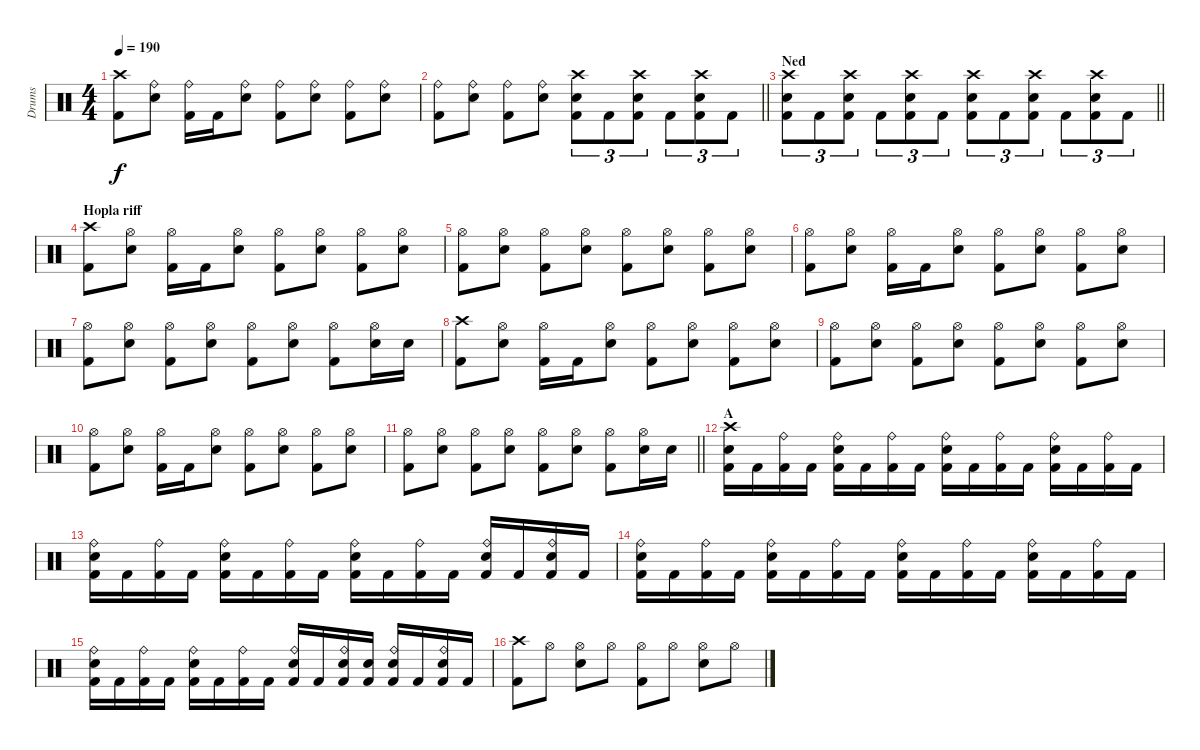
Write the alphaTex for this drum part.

\track ("Drums" "Drums") {instrument percussion}
\staff {score}
\articulation defaults
\ts (4 4)
\tempo 190
\clef neutral
\ks c
("Crash high (hit)" "Kick (hit) 2").8{dy f} ("Ride (bell)" "Snare (hit) 2").8 ("Ride (bell)" "Kick (hit) 2").16 "Kick (hit) 2".16 ("Ride (bell)" "Snare (hit) 2").8 ("Ride (bell)" "Kick (hit) 2").8 ("Ride (bell)" "Snare (hit) 2").8 ("Ride (bell)" "Kick (hit) 2").8 ("Ride (bell)" "Snare (hit) 2").8 |
\barLineRight lightlight
("Ride (bell)" "Kick (hit) 2").8 ("Ride (bell)" "Snare (hit) 2").8 ("Ride (bell)" "Kick (hit) 2").8 ("Ride (bell)" "Snare (hit) 2").8 ("Crash high (hit)" "Snare (hit) 2" "Kick (hit) 2").8{tu (3 2)} "Kick (hit) 2".8{tu (3 2)} ("Crash high (hit)" "Snare (hit) 2" "Kick (hit) 2").8{tu (3 2)} "Kick (hit) 2".8{tu (3 2)} ("Crash high (hit)" "Snare (hit) 2" "Kick (hit) 2").8{tu (3 2)} "Kick (hit) 2".8{tu (3 2)} |
\section ("" "Ned")
\barLineRight lightlight
("Crash high (hit)" "Snare (hit) 2" "Kick (hit) 2").8{tu (3 2)} "Kick (hit) 2".8{tu (3 2)} ("Crash high (hit)" "Snare (hit) 2" "Kick (hit) 2").8{tu (3 2)} "Kick (hit) 2".8{tu (3 2)} ("Crash high (hit)" "Snare (hit) 2" "Kick (hit) 2").8{tu (3 2)} "Kick (hit) 2".8{tu (3 2)} ("Crash high (hit)" "Snare (hit) 2" "Kick (hit) 2").8{tu (3 2)} "Kick (hit) 2".8{tu (3 2)} ("Crash high (hit)" "Snare (hit) 2" "Kick (hit) 2").8{tu (3 2)} "Kick (hit) 2".8{tu (3 2)} ("Crash high (hit)" "Snare (hit) 2" "Kick (hit) 2").8{tu (3 2)} "Kick (hit) 2".8{tu (3 2)} |
\section ("" "Hopla riff")
("Crash high (hit)" "Kick (hit) 2").8 ("Hi-Hat (open)" "Snare (hit) 2").8 ("Hi-Hat (open)" "Kick (hit) 2").16 "Kick (hit) 2".16 ("Hi-Hat (open)" "Snare (hit) 2").8 ("Hi-Hat (open)" "Kick (hit) 2").8 ("Hi-Hat (open)" "Snare (hit) 2").8 ("Hi-Hat (open)" "Kick (hit) 2").8 ("Hi-Hat (open)" "Snare (hit) 2").8 |
("Hi-Hat (open)" "Kick (hit) 2").8 ("Hi-Hat (open)" "Snare (hit) 2").8 ("Hi-Hat (open)" "Kick (hit) 2").8 ("Hi-Hat (open)" "Snare (hit) 2").8 ("Hi-Hat (open)" "Kick (hit) 2").8 ("Hi-Hat (open)" "Snare (hit) 2").8 ("Hi-Hat (open)" "Kick (hit) 2").8 ("Hi-Hat (open)" "Snare (hit) 2").8 |
("Hi-Hat (open)" "Kick (hit) 2").8 ("Hi-Hat (open)" "Snare (hit) 2").8 ("Hi-Hat (open)" "Kick (hit) 2").16 "Kick (hit) 2".16 ("Hi-Hat (open)" "Snare (hit) 2").8 ("Hi-Hat (open)" "Kick (hit) 2").8 ("Hi-Hat (open)" "Snare (hit) 2").8 ("Hi-Hat (open)" "Kick (hit) 2").8 ("Hi-Hat (open)" "Snare (hit) 2").8 |
("Hi-Hat (open)" "Kick (hit) 2").8 ("Hi-Hat (open)" "Snare (hit) 2").8 ("Hi-Hat (open)" "Kick (hit) 2").8 ("Hi-Hat (open)" "Snare (hit) 2").8 ("Hi-Hat (open)" "Kick (hit) 2").8 ("Hi-Hat (open)" "Snare (hit) 2").8 ("Hi-Hat (open)" "Kick (hit) 2").8 ("Hi-Hat (open)" "Snare (hit) 2").16 "Snare (hit) 2".16 |
("Crash high (hit)" "Kick (hit) 2").8 ("Hi-Hat (open)" "Snare (hit) 2").8 ("Hi-Hat (open)" "Kick (hit) 2").16 "Kick (hit) 2".16 ("Hi-Hat (open)" "Snare (hit) 2").8 ("Hi-Hat (open)" "Kick (hit) 2").8 ("Hi-Hat (open)" "Snare (hit) 2").8 ("Hi-Hat (open)" "Kick (hit) 2").8 ("Hi-Hat (open)" "Snare (hit) 2").8 |
("Hi-Hat (open)" "Kick (hit) 2").8 ("Hi-Hat (open)" "Snare (hit) 2").8 ("Hi-Hat (open)" "Kick (hit) 2").8 ("Hi-Hat (open)" "Snare (hit) 2").8 ("Hi-Hat (open)" "Kick (hit) 2").8 ("Hi-Hat (open)" "Snare (hit) 2").8 ("Hi-Hat (open)" "Kick (hit) 2").8 ("Hi-Hat (open)" "Snare (hit) 2").8 |
("Hi-Hat (open)" "Kick (hit) 2").8 ("Hi-Hat (open)" "Snare (hit) 2").8 ("Hi-Hat (open)" "Kick (hit) 2").16 "Kick (hit) 2".16 ("Hi-Hat (open)" "Snare (hit) 2").8 ("Hi-Hat (open)" "Kick (hit) 2").8 ("Hi-Hat (open)" "Snare (hit) 2").8 ("Hi-Hat (open)" "Kick (hit) 2").8 ("Hi-Hat (open)" "Snare (hit) 2").8 |
\barLineRight lightlight
("Hi-Hat (open)" "Kick (hit) 2").8 ("Hi-Hat (open)" "Snare (hit) 2").8 ("Hi-Hat (open)" "Kick (hit) 2").8 ("Hi-Hat (open)" "Snare (hit) 2").8 ("Hi-Hat (open)" "Kick (hit) 2").8 ("Hi-Hat (open)" "Snare (hit) 2").8 ("Hi-Hat (open)" "Kick (hit) 2").8 ("Hi-Hat (open)" "Snare (hit) 2").16 "Snare (hit) 2".16 |
\section ("" "A")
("Crash high (hit)" "Snare (hit) 2" "Kick (hit) 2").16 "Kick (hit) 2".16 ("Ride (bell)" "Kick (hit) 2").16 "Kick (hit) 2".16 ("Ride (bell)" "Snare (hit) 2" "Kick (hit) 2").16 "Kick (hit) 2".16 ("Ride (bell)" "Kick (hit) 2").16 "Kick (hit) 2".16 ("Ride (bell)" "Snare (hit) 2" "Kick (hit) 2").16 "Kick (hit) 2".16 ("Ride (bell)" "Kick (hit) 2").16 "Kick (hit) 2".16 ("Ride (bell)" "Snare (hit) 2" "Kick (hit) 2").16 "Kick (hit) 2".16 ("Ride (bell)" "Kick (hit) 2").16 "Kick (hit) 2".16 |
("Ride (bell)" "Snare (hit) 2" "Kick (hit) 2").16 "Kick (hit) 2".16 ("Ride (bell)" "Kick (hit) 2").16 "Kick (hit) 2".16 ("Ride (bell)" "Snare (hit) 2" "Kick (hit) 2").16 "Kick (hit) 2".16 ("Ride (bell)" "Kick (hit) 2").16 "Kick (hit) 2".16 ("Ride (bell)" "Snare (hit) 2" "Kick (hit) 2").16 "Kick (hit) 2".16 ("Ride (bell)" "Kick (hit) 2").16 "Kick (hit) 2".16 ("Ride (bell)" "Snare (hit) 2" "Kick (hit) 2").16 "Kick (hit) 2".16 ("Ride (bell)" "Snare (hit) 2" "Kick (hit) 2").16 "Kick (hit) 2".16 |
("Ride (bell)" "Snare (hit) 2" "Kick (hit) 2").16 "Kick (hit) 2".16 ("Ride (bell)" "Kick (hit) 2").16 "Kick (hit) 2".16 ("Ride (bell)" "Snare (hit) 2" "Kick (hit) 2").16 "Kick (hit) 2".16 ("Ride (bell)" "Kick (hit) 2").16 "Kick (hit) 2".16 ("Ride (bell)" "Snare (hit) 2" "Kick (hit) 2").16 "Kick (hit) 2".16 ("Ride (bell)" "Kick (hit) 2").16 "Kick (hit) 2".16 ("Ride (bell)" "Snare (hit) 2" "Kick (hit) 2").16 "Kick (hit) 2".16 ("Ride (bell)" "Kick (hit) 2").16 "Kick (hit) 2".16 |
("Ride (bell)" "Snare (hit) 2" "Kick (hit) 2").16 "Kick (hit) 2".16 ("Ride (bell)" "Kick (hit) 2").16 "Kick (hit) 2".16 ("Ride (bell)" "Snare (hit) 2" "Kick (hit) 2").16 "Kick (hit) 2".16 ("Ride (bell)" "Kick (hit) 2").16 "Kick (hit) 2".16 ("Ride (bell)" "Snare (hit) 2" "Kick (hit) 2").16 "Kick (hit) 2".16 ("Ride (bell)" "Snare (hit) 2" "Kick (hit) 2").16 ("Snare (hit) 2" "Kick (hit) 2").16 ("Ride (bell)" "Snare (hit) 2" "Kick (hit) 2").16 "Kick (hit) 2".16 ("Ride (bell)" "Snare (hit) 2" "Kick (hit) 2").16 "Kick (hit) 2".16 |
("Crash high (hit)" "Kick (hit) 2").8 "Hi-Hat (open)".8 ("Hi-Hat (open)" "Snare (hit) 2").8 "Hi-Hat (open)".8 ("Hi-Hat (open)" "Kick (hit) 2").8 "Hi-Hat (open)".8 ("Hi-Hat (open)" "Snare (hit) 2").8 "Hi-Hat (open)".8
